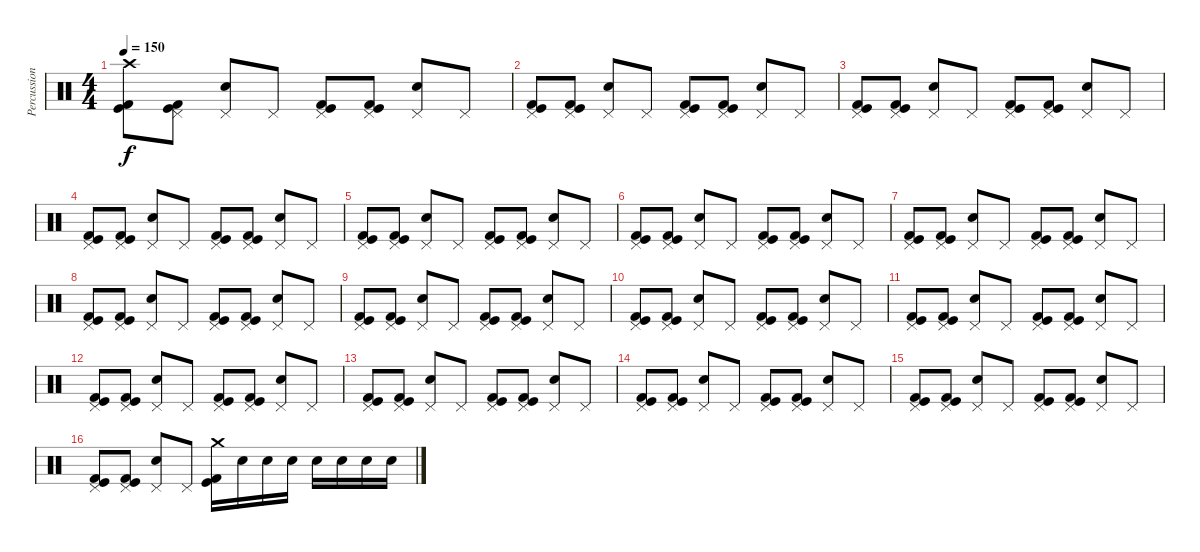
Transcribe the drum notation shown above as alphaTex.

\track ("Percussions" "Percussion") {instrument percussion}
\staff {score}
\articulation defaults
\ts (4 4)
\tempo 150
\clef neutral
\ks c
("Crash high (hit)" "Kick (hit)" "Kick (hit) 2").8{dy f} ("Pedal Hi-Hat (hit)" "Kick (hit)" "Kick (hit) 2").8 ("Pedal Hi-Hat (hit)" "Electric Snare (hit)").8 "Pedal Hi-Hat (hit)".8 ("Pedal Hi-Hat (hit)" "Kick (hit)" "Kick (hit) 2").8 ("Pedal Hi-Hat (hit)" "Kick (hit)" "Kick (hit) 2").8 ("Pedal Hi-Hat (hit)" "Electric Snare (hit)").8 "Pedal Hi-Hat (hit)".8 |
("Pedal Hi-Hat (hit)" "Kick (hit)" "Kick (hit) 2").8 ("Pedal Hi-Hat (hit)" "Kick (hit)" "Kick (hit) 2").8 ("Pedal Hi-Hat (hit)" "Electric Snare (hit)").8 "Pedal Hi-Hat (hit)".8 ("Pedal Hi-Hat (hit)" "Kick (hit)" "Kick (hit) 2").8 ("Pedal Hi-Hat (hit)" "Kick (hit)" "Kick (hit) 2").8 ("Pedal Hi-Hat (hit)" "Electric Snare (hit)").8 "Pedal Hi-Hat (hit)".8 |
("Pedal Hi-Hat (hit)" "Kick (hit)" "Kick (hit) 2").8 ("Pedal Hi-Hat (hit)" "Kick (hit)" "Kick (hit) 2").8 ("Pedal Hi-Hat (hit)" "Electric Snare (hit)").8 "Pedal Hi-Hat (hit)".8 ("Pedal Hi-Hat (hit)" "Kick (hit)" "Kick (hit) 2").8 ("Pedal Hi-Hat (hit)" "Kick (hit)" "Kick (hit) 2").8 ("Pedal Hi-Hat (hit)" "Electric Snare (hit)").8 "Pedal Hi-Hat (hit)".8 |
("Pedal Hi-Hat (hit)" "Kick (hit)" "Kick (hit) 2").8 ("Pedal Hi-Hat (hit)" "Kick (hit)" "Kick (hit) 2").8 ("Pedal Hi-Hat (hit)" "Electric Snare (hit)").8 "Pedal Hi-Hat (hit)".8 ("Pedal Hi-Hat (hit)" "Kick (hit)" "Kick (hit) 2").8 ("Pedal Hi-Hat (hit)" "Kick (hit)" "Kick (hit) 2").8 ("Pedal Hi-Hat (hit)" "Electric Snare (hit)").8 "Pedal Hi-Hat (hit)".8 |
("Pedal Hi-Hat (hit)" "Kick (hit)" "Kick (hit) 2").8 ("Pedal Hi-Hat (hit)" "Kick (hit)" "Kick (hit) 2").8 ("Pedal Hi-Hat (hit)" "Electric Snare (hit)").8 "Pedal Hi-Hat (hit)".8 ("Pedal Hi-Hat (hit)" "Kick (hit)" "Kick (hit) 2").8 ("Pedal Hi-Hat (hit)" "Kick (hit)" "Kick (hit) 2").8 ("Pedal Hi-Hat (hit)" "Electric Snare (hit)").8 "Pedal Hi-Hat (hit)".8 |
("Pedal Hi-Hat (hit)" "Kick (hit)" "Kick (hit) 2").8 ("Pedal Hi-Hat (hit)" "Kick (hit)" "Kick (hit) 2").8 ("Pedal Hi-Hat (hit)" "Electric Snare (hit)").8 "Pedal Hi-Hat (hit)".8 ("Pedal Hi-Hat (hit)" "Kick (hit)" "Kick (hit) 2").8 ("Pedal Hi-Hat (hit)" "Kick (hit)" "Kick (hit) 2").8 ("Pedal Hi-Hat (hit)" "Electric Snare (hit)").8 "Pedal Hi-Hat (hit)".8 |
("Pedal Hi-Hat (hit)" "Kick (hit)" "Kick (hit) 2").8 ("Pedal Hi-Hat (hit)" "Kick (hit)" "Kick (hit) 2").8 ("Pedal Hi-Hat (hit)" "Electric Snare (hit)").8 "Pedal Hi-Hat (hit)".8 ("Pedal Hi-Hat (hit)" "Kick (hit)" "Kick (hit) 2").8 ("Pedal Hi-Hat (hit)" "Kick (hit)" "Kick (hit) 2").8 ("Pedal Hi-Hat (hit)" "Electric Snare (hit)").8 "Pedal Hi-Hat (hit)".8 |
("Pedal Hi-Hat (hit)" "Kick (hit)" "Kick (hit) 2").8 ("Pedal Hi-Hat (hit)" "Kick (hit)" "Kick (hit) 2").8 ("Pedal Hi-Hat (hit)" "Electric Snare (hit)").8 "Pedal Hi-Hat (hit)".8 ("Pedal Hi-Hat (hit)" "Kick (hit)" "Kick (hit) 2").8 ("Pedal Hi-Hat (hit)" "Kick (hit)" "Kick (hit) 2").8 ("Pedal Hi-Hat (hit)" "Electric Snare (hit)").8 "Pedal Hi-Hat (hit)".8 |
("Pedal Hi-Hat (hit)" "Kick (hit)" "Kick (hit) 2").8 ("Pedal Hi-Hat (hit)" "Kick (hit)" "Kick (hit) 2").8 ("Pedal Hi-Hat (hit)" "Electric Snare (hit)").8 "Pedal Hi-Hat (hit)".8 ("Pedal Hi-Hat (hit)" "Kick (hit)" "Kick (hit) 2").8 ("Pedal Hi-Hat (hit)" "Kick (hit)" "Kick (hit) 2").8 ("Pedal Hi-Hat (hit)" "Electric Snare (hit)").8 "Pedal Hi-Hat (hit)".8 |
("Pedal Hi-Hat (hit)" "Kick (hit)" "Kick (hit) 2").8 ("Pedal Hi-Hat (hit)" "Kick (hit)" "Kick (hit) 2").8 ("Pedal Hi-Hat (hit)" "Electric Snare (hit)").8 "Pedal Hi-Hat (hit)".8 ("Pedal Hi-Hat (hit)" "Kick (hit)" "Kick (hit) 2").8 ("Pedal Hi-Hat (hit)" "Kick (hit)" "Kick (hit) 2").8 ("Pedal Hi-Hat (hit)" "Electric Snare (hit)").8 "Pedal Hi-Hat (hit)".8 |
("Pedal Hi-Hat (hit)" "Kick (hit)" "Kick (hit) 2").8 ("Pedal Hi-Hat (hit)" "Kick (hit)" "Kick (hit) 2").8 ("Pedal Hi-Hat (hit)" "Electric Snare (hit)").8 "Pedal Hi-Hat (hit)".8 ("Pedal Hi-Hat (hit)" "Kick (hit)" "Kick (hit) 2").8 ("Pedal Hi-Hat (hit)" "Kick (hit)" "Kick (hit) 2").8 ("Pedal Hi-Hat (hit)" "Electric Snare (hit)").8 "Pedal Hi-Hat (hit)".8 |
("Pedal Hi-Hat (hit)" "Kick (hit)" "Kick (hit) 2").8 ("Pedal Hi-Hat (hit)" "Kick (hit)" "Kick (hit) 2").8 ("Pedal Hi-Hat (hit)" "Electric Snare (hit)").8 "Pedal Hi-Hat (hit)".8 ("Pedal Hi-Hat (hit)" "Kick (hit)" "Kick (hit) 2").8 ("Pedal Hi-Hat (hit)" "Kick (hit)" "Kick (hit) 2").8 ("Pedal Hi-Hat (hit)" "Electric Snare (hit)").8 "Pedal Hi-Hat (hit)".8 |
("Pedal Hi-Hat (hit)" "Kick (hit)" "Kick (hit) 2").8 ("Pedal Hi-Hat (hit)" "Kick (hit)" "Kick (hit) 2").8 ("Pedal Hi-Hat (hit)" "Electric Snare (hit)").8 "Pedal Hi-Hat (hit)".8 ("Pedal Hi-Hat (hit)" "Kick (hit)" "Kick (hit) 2").8 ("Pedal Hi-Hat (hit)" "Kick (hit)" "Kick (hit) 2").8 ("Pedal Hi-Hat (hit)" "Electric Snare (hit)").8 "Pedal Hi-Hat (hit)".8 |
("Pedal Hi-Hat (hit)" "Kick (hit)" "Kick (hit) 2").8 ("Pedal Hi-Hat (hit)" "Kick (hit)" "Kick (hit) 2").8 ("Pedal Hi-Hat (hit)" "Electric Snare (hit)").8 "Pedal Hi-Hat (hit)".8 ("Pedal Hi-Hat (hit)" "Kick (hit)" "Kick (hit) 2").8 ("Pedal Hi-Hat (hit)" "Kick (hit)" "Kick (hit) 2").8 ("Pedal Hi-Hat (hit)" "Electric Snare (hit)").8 "Pedal Hi-Hat (hit)".8 |
("Pedal Hi-Hat (hit)" "Kick (hit)" "Kick (hit) 2").8 ("Pedal Hi-Hat (hit)" "Kick (hit)" "Kick (hit) 2").8 ("Pedal Hi-Hat (hit)" "Electric Snare (hit)").8 "Pedal Hi-Hat (hit)".8 ("Pedal Hi-Hat (hit)" "Kick (hit)" "Kick (hit) 2").8 ("Pedal Hi-Hat (hit)" "Kick (hit)" "Kick (hit) 2").8 ("Pedal Hi-Hat (hit)" "Electric Snare (hit)").8 "Pedal Hi-Hat (hit)".8 |
("Pedal Hi-Hat (hit)" "Kick (hit)" "Kick (hit) 2").8 ("Pedal Hi-Hat (hit)" "Kick (hit)" "Kick (hit) 2").8 ("Pedal Hi-Hat (hit)" "Electric Snare (hit)").8 "Pedal Hi-Hat (hit)".8 ("Crash medium (hit)" "Kick (hit)" "Kick (hit) 2").16 "Electric Snare (hit)".16 "Electric Snare (hit)".16 "Electric Snare (hit)".16 "Electric Snare (hit)".16 "Electric Snare (hit)".16 "Electric Snare (hit)".16 "Electric Snare (hit)".16
